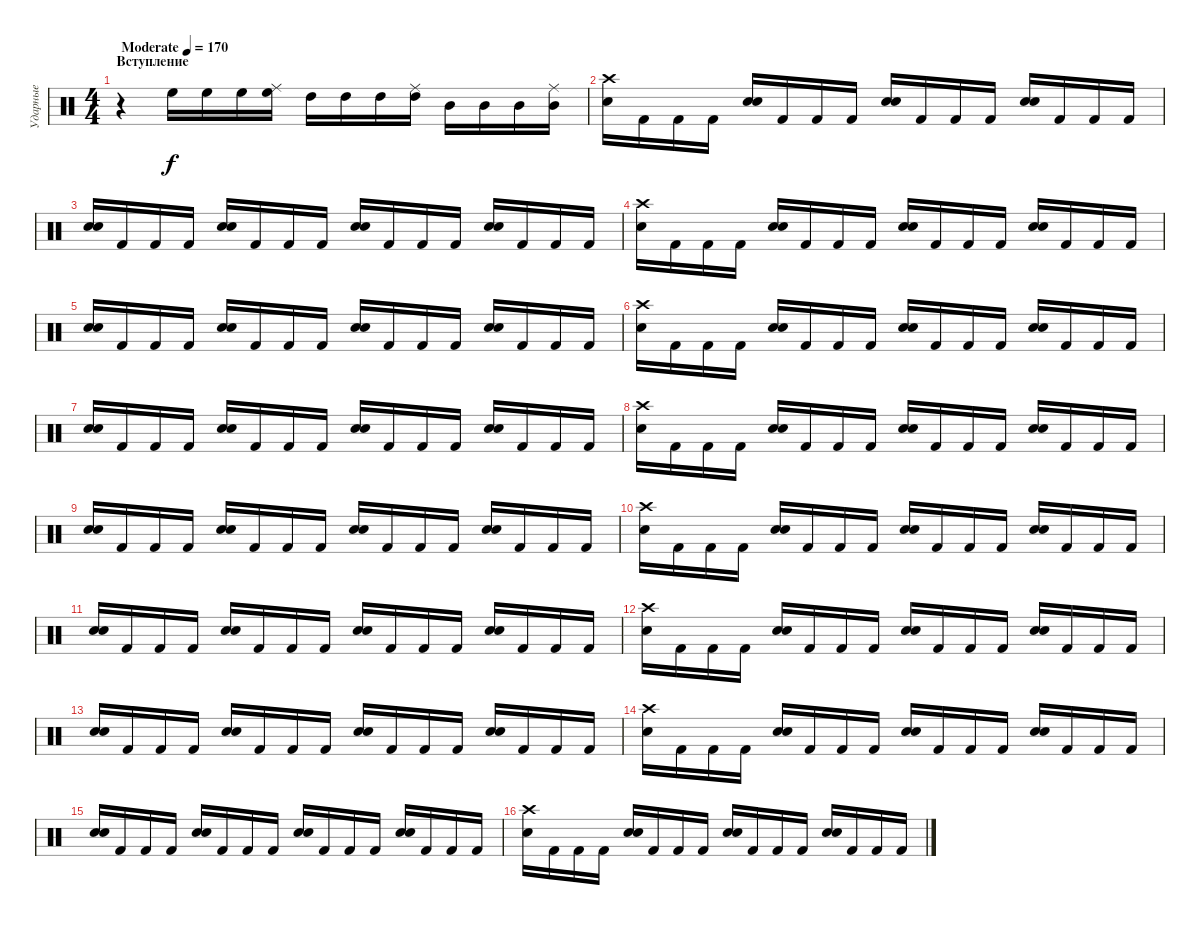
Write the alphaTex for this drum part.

\track ("Ударные" "Ударные") {instrument percussion}
\staff {score}
\articulation defaults
\ts (4 4)
\section ("" "Вступление")
\tempo (170 "Moderate")
\clef neutral
\ks c
r.4{dy f} "High Floor Tom (hit)".16 "High Floor Tom (hit)".16 "High Floor Tom (hit)".16 ("High Floor Tom (hit)" "Ride (middle)").16 "High Tom (hit)".16 "High Tom (hit)".16 "High Tom (hit)".16 ("Ride (middle)" "High Tom (hit)").16 "Mid Tom (hit)".16 "Mid Tom (hit)".16 "Mid Tom (hit)".16 ("Mid Tom (hit)" "Ride (middle)").16 |
("Snare (hit) 2" "Crash high (hit)").16 "Kick (hit) 2".16 "Kick (hit) 2".16 "Kick (hit) 2".16 ("Snare (hit) 2" "Snare (hit) 2").16 "Kick (hit) 2".16 "Kick (hit) 2".16 "Kick (hit) 2".16 ("Snare (hit) 2" "Snare (hit) 2").16 "Kick (hit) 2".16 "Kick (hit) 2".16 "Kick (hit) 2".16 ("Snare (hit) 2" "Snare (hit) 2").16 "Kick (hit) 2".16 "Kick (hit) 2".16 "Kick (hit) 2".16 |
("Snare (hit) 2" "Snare (hit) 2").16 "Kick (hit) 2".16 "Kick (hit) 2".16 "Kick (hit) 2".16 ("Snare (hit) 2" "Snare (hit) 2").16 "Kick (hit) 2".16 "Kick (hit) 2".16 "Kick (hit) 2".16 ("Snare (hit) 2" "Snare (hit) 2").16 "Kick (hit) 2".16 "Kick (hit) 2".16 "Kick (hit) 2".16 ("Snare (hit) 2" "Snare (hit) 2").16 "Kick (hit) 2".16 "Kick (hit) 2".16 "Kick (hit) 2".16 |
("Snare (hit) 2" "Crash high (hit)").16 "Kick (hit) 2".16 "Kick (hit) 2".16 "Kick (hit) 2".16 ("Snare (hit) 2" "Snare (hit) 2").16 "Kick (hit) 2".16 "Kick (hit) 2".16 "Kick (hit) 2".16 ("Snare (hit) 2" "Snare (hit) 2").16 "Kick (hit) 2".16 "Kick (hit) 2".16 "Kick (hit) 2".16 ("Snare (hit) 2" "Snare (hit) 2").16 "Kick (hit) 2".16 "Kick (hit) 2".16 "Kick (hit) 2".16 |
("Snare (hit) 2" "Snare (hit) 2").16 "Kick (hit) 2".16 "Kick (hit) 2".16 "Kick (hit) 2".16 ("Snare (hit) 2" "Snare (hit) 2").16 "Kick (hit) 2".16 "Kick (hit) 2".16 "Kick (hit) 2".16 ("Snare (hit) 2" "Snare (hit) 2").16 "Kick (hit) 2".16 "Kick (hit) 2".16 "Kick (hit) 2".16 ("Snare (hit) 2" "Snare (hit) 2").16 "Kick (hit) 2".16 "Kick (hit) 2".16 "Kick (hit) 2".16 |
("Snare (hit) 2" "Crash high (hit)").16 "Kick (hit) 2".16 "Kick (hit) 2".16 "Kick (hit) 2".16 ("Snare (hit) 2" "Snare (hit) 2").16 "Kick (hit) 2".16 "Kick (hit) 2".16 "Kick (hit) 2".16 ("Snare (hit) 2" "Snare (hit) 2").16 "Kick (hit) 2".16 "Kick (hit) 2".16 "Kick (hit) 2".16 ("Snare (hit) 2" "Snare (hit) 2").16 "Kick (hit) 2".16 "Kick (hit) 2".16 "Kick (hit) 2".16 |
("Snare (hit) 2" "Snare (hit) 2").16 "Kick (hit) 2".16 "Kick (hit) 2".16 "Kick (hit) 2".16 ("Snare (hit) 2" "Snare (hit) 2").16 "Kick (hit) 2".16 "Kick (hit) 2".16 "Kick (hit) 2".16 ("Snare (hit) 2" "Snare (hit) 2").16 "Kick (hit) 2".16 "Kick (hit) 2".16 "Kick (hit) 2".16 ("Snare (hit) 2" "Snare (hit) 2").16 "Kick (hit) 2".16 "Kick (hit) 2".16 "Kick (hit) 2".16 |
("Snare (hit) 2" "Crash high (hit)").16 "Kick (hit) 2".16 "Kick (hit) 2".16 "Kick (hit) 2".16 ("Snare (hit) 2" "Snare (hit) 2").16 "Kick (hit) 2".16 "Kick (hit) 2".16 "Kick (hit) 2".16 ("Snare (hit) 2" "Snare (hit) 2").16 "Kick (hit) 2".16 "Kick (hit) 2".16 "Kick (hit) 2".16 ("Snare (hit) 2" "Snare (hit) 2").16 "Kick (hit) 2".16 "Kick (hit) 2".16 "Kick (hit) 2".16 |
("Snare (hit) 2" "Snare (hit) 2").16 "Kick (hit) 2".16 "Kick (hit) 2".16 "Kick (hit) 2".16 ("Snare (hit) 2" "Snare (hit) 2").16 "Kick (hit) 2".16 "Kick (hit) 2".16 "Kick (hit) 2".16 ("Snare (hit) 2" "Snare (hit) 2").16 "Kick (hit) 2".16 "Kick (hit) 2".16 "Kick (hit) 2".16 ("Snare (hit) 2" "Snare (hit) 2").16 "Kick (hit) 2".16 "Kick (hit) 2".16 "Kick (hit) 2".16 |
("Snare (hit) 2" "Crash high (hit)").16 "Kick (hit) 2".16 "Kick (hit) 2".16 "Kick (hit) 2".16 ("Snare (hit) 2" "Snare (hit) 2").16 "Kick (hit) 2".16 "Kick (hit) 2".16 "Kick (hit) 2".16 ("Snare (hit) 2" "Snare (hit) 2").16 "Kick (hit) 2".16 "Kick (hit) 2".16 "Kick (hit) 2".16 ("Snare (hit) 2" "Snare (hit) 2").16 "Kick (hit) 2".16 "Kick (hit) 2".16 "Kick (hit) 2".16 |
("Snare (hit) 2" "Snare (hit) 2").16 "Kick (hit) 2".16 "Kick (hit) 2".16 "Kick (hit) 2".16 ("Snare (hit) 2" "Snare (hit) 2").16 "Kick (hit) 2".16 "Kick (hit) 2".16 "Kick (hit) 2".16 ("Snare (hit) 2" "Snare (hit) 2").16 "Kick (hit) 2".16 "Kick (hit) 2".16 "Kick (hit) 2".16 ("Snare (hit) 2" "Snare (hit) 2").16 "Kick (hit) 2".16 "Kick (hit) 2".16 "Kick (hit) 2".16 |
("Snare (hit) 2" "Crash high (hit)").16 "Kick (hit) 2".16 "Kick (hit) 2".16 "Kick (hit) 2".16 ("Snare (hit) 2" "Snare (hit) 2").16 "Kick (hit) 2".16 "Kick (hit) 2".16 "Kick (hit) 2".16 ("Snare (hit) 2" "Snare (hit) 2").16 "Kick (hit) 2".16 "Kick (hit) 2".16 "Kick (hit) 2".16 ("Snare (hit) 2" "Snare (hit) 2").16 "Kick (hit) 2".16 "Kick (hit) 2".16 "Kick (hit) 2".16 |
("Snare (hit) 2" "Snare (hit) 2").16 "Kick (hit) 2".16 "Kick (hit) 2".16 "Kick (hit) 2".16 ("Snare (hit) 2" "Snare (hit) 2").16 "Kick (hit) 2".16 "Kick (hit) 2".16 "Kick (hit) 2".16 ("Snare (hit) 2" "Snare (hit) 2").16 "Kick (hit) 2".16 "Kick (hit) 2".16 "Kick (hit) 2".16 ("Snare (hit) 2" "Snare (hit) 2").16 "Kick (hit) 2".16 "Kick (hit) 2".16 "Kick (hit) 2".16 |
("Snare (hit) 2" "Crash high (hit)").16 "Kick (hit) 2".16 "Kick (hit) 2".16 "Kick (hit) 2".16 ("Snare (hit) 2" "Snare (hit) 2").16 "Kick (hit) 2".16 "Kick (hit) 2".16 "Kick (hit) 2".16 ("Snare (hit) 2" "Snare (hit) 2").16 "Kick (hit) 2".16 "Kick (hit) 2".16 "Kick (hit) 2".16 ("Snare (hit) 2" "Snare (hit) 2").16 "Kick (hit) 2".16 "Kick (hit) 2".16 "Kick (hit) 2".16 |
("Snare (hit) 2" "Snare (hit) 2").16 "Kick (hit) 2".16 "Kick (hit) 2".16 "Kick (hit) 2".16 ("Snare (hit) 2" "Snare (hit) 2").16 "Kick (hit) 2".16 "Kick (hit) 2".16 "Kick (hit) 2".16 ("Snare (hit) 2" "Snare (hit) 2").16 "Kick (hit) 2".16 "Kick (hit) 2".16 "Kick (hit) 2".16 ("Snare (hit) 2" "Snare (hit) 2").16 "Kick (hit) 2".16 "Kick (hit) 2".16 "Kick (hit) 2".16 |
("Snare (hit) 2" "Crash high (hit)").16 "Kick (hit) 2".16 "Kick (hit) 2".16 "Kick (hit) 2".16 ("Snare (hit) 2" "Snare (hit) 2").16 "Kick (hit) 2".16 "Kick (hit) 2".16 "Kick (hit) 2".16 ("Snare (hit) 2" "Snare (hit) 2").16 "Kick (hit) 2".16 "Kick (hit) 2".16 "Kick (hit) 2".16 ("Snare (hit) 2" "Snare (hit) 2").16 "Kick (hit) 2".16 "Kick (hit) 2".16 "Kick (hit) 2".16
